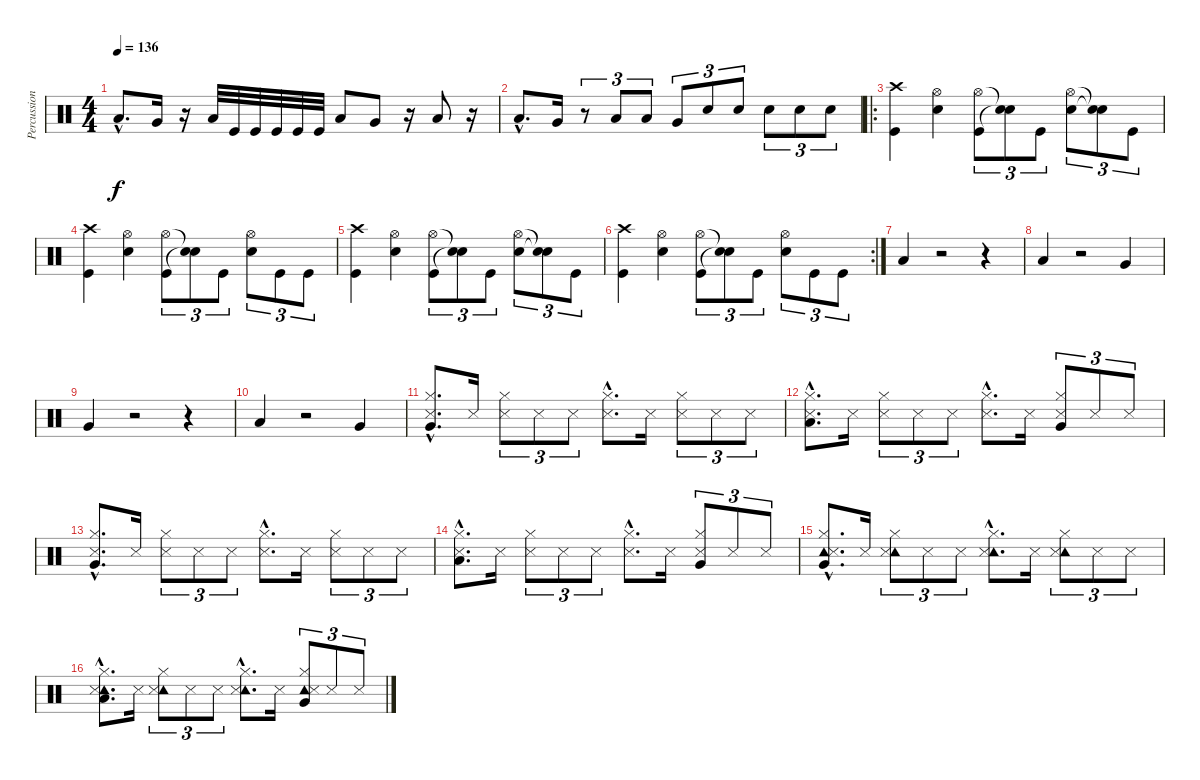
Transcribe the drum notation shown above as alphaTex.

\track ("Percussions" "Percussion") {instrument percussion}
\staff {score}
\articulation defaults
\ts (4 4)
\tempo 136
\clef neutral
\ks c "Low Tom (hit)"{hac}.8{d dy f} "Very Low Tom (hit)".16
r.16 "Low Floor Tom (hit)".32 "Kick (hit)".32 "Kick (hit)".32 "Kick (hit)".32 "Kick (hit)".32 "Kick (hit)".32 "Low Tom (hit)".8 "Very Low Tom (hit)".8 r.16 "Low Floor Tom (hit)".8 r.16 |
"Low Tom (hit)"{hac}.8{d} "Very Low Tom (hit)".16 r.8{tu (3 2)} "Low Floor Tom (hit)".8{tu (3 2)} "Low Floor Tom (hit)".8{tu (3 2)} "Very Low Tom (hit)".8{tu (3 2)} "Snare (hit) 2".8{tu (3 2)} "Snare (hit) 2".8{tu (3 2)} "Snare (hit) 2".8{tu (3 2)} "Snare (hit) 2".8{tu (3 2)} "Snare (hit) 2".8{tu (3 2)} |
\ro
("Crash high (hit)" "Kick (hit)").4 ("Hi-Hat (open)" "Snare (hit) 2").4 ("Hi-Hat (open)" "Kick (hit)").8{tu (3 2)} ("Snare (hit)"{t} "Snare (hit)"{t}).8{tu (3 2)} "Kick (hit)".8{tu (3 2)} ("Hi-Hat (open)" "Snare (hit) 2").8{tu (3 2)} ("Snare (hit)"{t} "Snare (hit)"{t}).8{tu (3 2)} "Kick (hit)".8{tu (3 2)} |
("Crash high (hit)" "Kick (hit)").4 ("Hi-Hat (open)" "Snare (hit) 2").4 ("Hi-Hat (open)" "Kick (hit)").8{tu (3 2)} ("Snare (hit)"{t} "Snare (hit)"{t}).8{tu (3 2)} "Kick (hit)".8{tu (3 2)} ("Hi-Hat (open)" "Snare (hit) 2").8{tu (3 2)} "Kick (hit)".8{tu (3 2)} "Kick (hit)".8{tu (3 2)} |
("Crash high (hit)" "Kick (hit)").4 ("Hi-Hat (open)" "Snare (hit) 2").4 ("Hi-Hat (open)" "Kick (hit)").8{tu (3 2)} ("Snare (hit)"{t} "Snare (hit)"{t}).8{tu (3 2)} "Kick (hit)".8{tu (3 2)} ("Hi-Hat (open)" "Snare (hit) 2").8{tu (3 2)} ("Snare (hit)"{t} "Snare (hit)"{t}).8{tu (3 2)} "Kick (hit)".8{tu (3 2)} |
\rc 2
("Crash high (hit)" "Kick (hit)").4 ("Hi-Hat (open)" "Snare (hit) 2").4 ("Hi-Hat (open)" "Kick (hit)").8{tu (3 2)} ("Snare (hit)"{t} "Snare (hit)"{t}).8{tu (3 2)} "Kick (hit)".8{tu (3 2)} ("Hi-Hat (open)" "Snare (hit) 2").8{tu (3 2)} "Kick (hit)".8{tu (3 2)} "Kick (hit)".8{tu (3 2)} |
"Low Floor Tom (hit)".4 r.2 r.4 |
"Low Floor Tom (hit)".4 r.2 "Very Low Tom (hit)".4 |
"Very Low Tom (hit)".4 r.2 r.4 |
"Low Floor Tom (hit)".4 r.2 "Very Low Tom (hit)".4 |
("Hi-Hat (closed)"{hac} "Snare (side stick) 3"{hac} "Very Low Tom (hit)"{hac}).8{d} "Snare (side stick) 3".16 ("Hi-Hat (closed)" "Snare (side stick) 3").8{tu (3 2)} "Snare (side stick) 3".8{tu (3 2)} "Snare (side stick) 3".8{tu (3 2)} ("Hi-Hat (closed)"{hac} "Snare (side stick) 3"{hac}).8{d} "Snare (side stick) 3".16 ("Hi-Hat (closed)" "Snare (side stick) 3").8{tu (3 2)} "Snare (side stick) 3".8{tu (3 2)} "Snare (side stick) 3".8{tu (3 2)} |
("Hi-Hat (closed)"{hac} "Snare (side stick) 3"{hac} "Low Floor Tom (hit)"{hac}).8{d} "Snare (side stick) 3".16 ("Hi-Hat (closed)" "Snare (side stick) 3").8{tu (3 2)} "Snare (side stick) 3".8{tu (3 2)} "Snare (side stick) 3".8{tu (3 2)} ("Hi-Hat (closed)"{hac} "Snare (side stick) 3"{hac}).8{d} "Snare (side stick) 3".16 ("Hi-Hat (closed)" "Snare (side stick) 3" "Very Low Tom (hit)").8{tu (3 2)} "Snare (side stick) 3".8{tu (3 2)} "Snare (side stick) 3".8{tu (3 2)} |
("Hi-Hat (closed)"{hac} "Snare (side stick) 3"{hac} "Very Low Tom (hit)"{hac}).8{d} "Snare (side stick) 3".16 ("Hi-Hat (closed)" "Snare (side stick) 3").8{tu (3 2)} "Snare (side stick) 3".8{tu (3 2)} "Snare (side stick) 3".8{tu (3 2)} ("Hi-Hat (closed)"{hac} "Snare (side stick) 3"{hac}).8{d} "Snare (side stick) 3".16 ("Hi-Hat (closed)" "Snare (side stick) 3").8{tu (3 2)} "Snare (side stick) 3".8{tu (3 2)} "Snare (side stick) 3".8{tu (3 2)} |
("Hi-Hat (closed)"{hac} "Snare (side stick) 3"{hac} "Low Floor Tom (hit)"{hac}).8{d} "Snare (side stick) 3".16 ("Hi-Hat (closed)" "Snare (side stick) 3").8{tu (3 2)} "Snare (side stick) 3".8{tu (3 2)} "Snare (side stick) 3".8{tu (3 2)} ("Hi-Hat (closed)"{hac} "Snare (side stick) 3"{hac}).8{d} "Snare (side stick) 3".16 ("Hi-Hat (closed)" "Snare (side stick) 3" "Very Low Tom (hit)").8{tu (3 2)} "Snare (side stick) 3".8{tu (3 2)} "Snare (side stick) 3".8{tu (3 2)} |
("Hi-Hat (closed)"{hac} "Tambourine (hit)"{hac} "Snare (side stick) 3"{hac} "Very Low Tom (hit)"{hac}).8{d} "Snare (side stick) 3".16 ("Hi-Hat (closed)" "Tambourine (hit)" "Snare (side stick) 3").8{tu (3 2)} "Snare (side stick) 3".8{tu (3 2)} "Snare (side stick) 3".8{tu (3 2)} ("Hi-Hat (closed)"{hac} "Tambourine (hit)"{hac} "Snare (side stick) 3"{hac}).8{d} "Snare (side stick) 3".16 ("Hi-Hat (closed)" "Tambourine (hit)" "Snare (side stick) 3").8{tu (3 2)} "Snare (side stick) 3".8{tu (3 2)} "Snare (side stick) 3".8{tu (3 2)} |
("Hi-Hat (closed)"{hac} "Tambourine (hit)"{hac} "Snare (side stick) 3"{hac} "Low Floor Tom (hit)"{hac}).8{d} "Snare (side stick) 3".16 ("Hi-Hat (closed)" "Tambourine (hit)" "Snare (side stick) 3").8{tu (3 2)} "Snare (side stick) 3".8{tu (3 2)} "Snare (side stick) 3".8{tu (3 2)} ("Hi-Hat (closed)"{hac} "Tambourine (hit)"{hac} "Snare (side stick) 3"{hac}).8{d} "Snare (side stick) 3".16 ("Hi-Hat (closed)" "Tambourine (hit)" "Snare (side stick) 3" "Very Low Tom (hit)").8{tu (3 2)} "Snare (side stick) 3".8{tu (3 2)} "Snare (side stick) 3".8{tu (3 2)}
